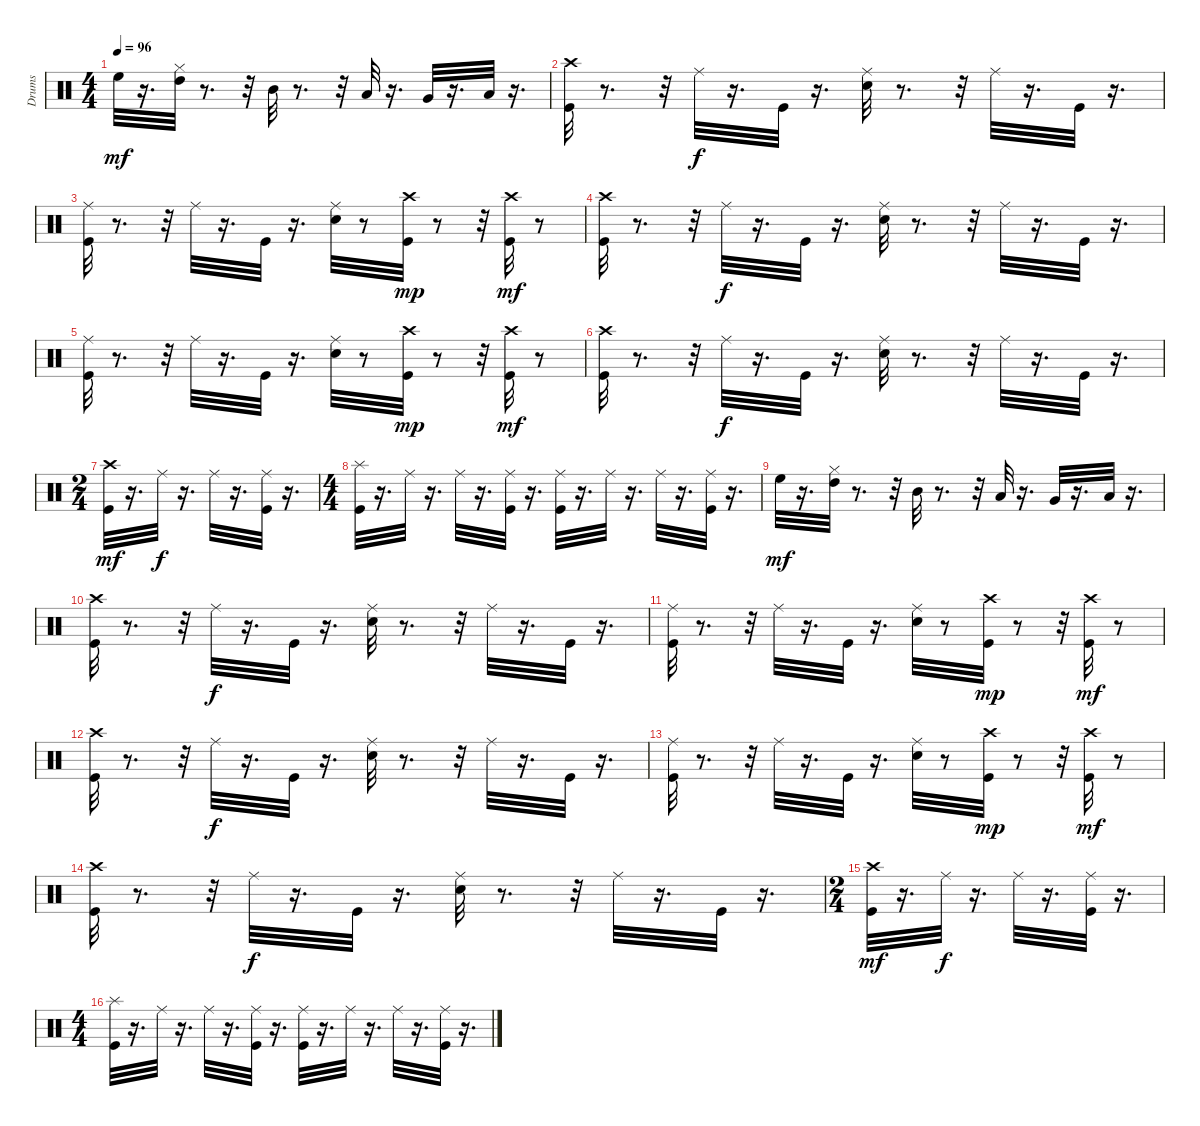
\track ("Drums" "Drums") {instrument percussion}
\staff {score}
\articulation defaults
\ts (4 4)
\tempo 96
\clef neutral
\ks c "High Floor Tom (hit)".32{dy mf}
r.16{d} ("Hi-Hat (closed)" "High Tom (hit)").32 r.8{d} r.32 "Mid Tom (hit)".32 r.8{d} r.32 "Low Tom (hit)".32 r.16{d} "Very Low Tom (hit)".32 r.16{d} "Low Floor Tom (hit)".32 r.16{d} |
("Kick (hit)" "Crash high (hit)").32 r.8{d} r.32 "Ride (middle)".32{dy f} r.16{d} "Kick (hit)".32 r.16{d} ("Snare (hit) 2" "Ride (middle)").32 r.8{d} r.32 "Ride (middle)".32 r.16{d} "Kick (hit)".32 r.16{d} |
("Kick (hit)" "Ride (middle)").32 r.8{d} r.32 "Ride (middle)".32 r.16{d} "Kick (hit)".32 r.16{d} ("Snare (hit) 2" "Ride (middle)").32 r.8 ("Kick (hit)" "Crash high (hit)").32{dy mp} r.8 r.32 ("Kick (hit)" "Crash high (hit)").32{dy mf} r.8 |
("Kick (hit)" "Crash high (hit)").32 r.8{d} r.32 "Ride (middle)".32{dy f} r.16{d} "Kick (hit)".32 r.16{d} ("Snare (hit) 2" "Ride (middle)").32 r.8{d} r.32 "Ride (middle)".32 r.16{d} "Kick (hit)".32 r.16{d} |
("Kick (hit)" "Ride (middle)").32 r.8{d} r.32 "Ride (middle)".32 r.16{d} "Kick (hit)".32 r.16{d} ("Snare (hit) 2" "Ride (middle)").32 r.8 ("Kick (hit)" "Crash high (hit)").32{dy mp} r.8 r.32 ("Kick (hit)" "Crash high (hit)").32{dy mf} r.8 |
("Kick (hit)" "Crash high (hit)").32 r.8{d} r.32 "Ride (middle)".32{dy f} r.16{d} "Kick (hit)".32 r.16{d} ("Snare (hit) 2" "Ride (middle)").32 r.8{d} r.32 "Ride (middle)".32 r.16{d} "Kick (hit)".32 r.16{d} |
\ts (2 4)
("Kick (hit)" "Crash high (hit)").32{dy mf} r.16{d} "Ride (middle)".32{dy f} r.16{d} "Ride (middle)".32 r.16{d} ("Kick (hit)" "Ride (middle)").32 r.16{d} |
\ts (4 4)
("Kick (hit)" "Splash (hit)").32 r.16{d} "Ride (middle)".32 r.16{d} "Ride (middle)".32 r.16{d} ("Kick (hit)" "Ride (middle)").32 r.16{d} ("Kick (hit)" "Ride (middle)").32 r.16{d} "Ride (middle)".32 r.16{d} "Ride (middle)".32 r.16{d} ("Kick (hit)" "Ride (middle)").32 r.16{d} |
"High Floor Tom (hit)".32{dy mf} r.16{d} ("Hi-Hat (closed)" "High Tom (hit)").32 r.8{d} r.32 "Mid Tom (hit)".32 r.8{d} r.32 "Low Tom (hit)".32 r.16{d} "Very Low Tom (hit)".32 r.16{d} "Low Floor Tom (hit)".32 r.16{d} |
("Kick (hit)" "Crash high (hit)").32 r.8{d} r.32 "Ride (middle)".32{dy f} r.16{d} "Kick (hit)".32 r.16{d} ("Snare (hit) 2" "Ride (middle)").32 r.8{d} r.32 "Ride (middle)".32 r.16{d} "Kick (hit)".32 r.16{d} |
("Kick (hit)" "Ride (middle)").32 r.8{d} r.32 "Ride (middle)".32 r.16{d} "Kick (hit)".32 r.16{d} ("Snare (hit) 2" "Ride (middle)").32 r.8 ("Kick (hit)" "Crash high (hit)").32{dy mp} r.8 r.32 ("Kick (hit)" "Crash high (hit)").32{dy mf} r.8 |
("Kick (hit)" "Crash high (hit)").32 r.8{d} r.32 "Ride (middle)".32{dy f} r.16{d} "Kick (hit)".32 r.16{d} ("Snare (hit) 2" "Ride (middle)").32 r.8{d} r.32 "Ride (middle)".32 r.16{d} "Kick (hit)".32 r.16{d} |
("Kick (hit)" "Ride (middle)").32 r.8{d} r.32 "Ride (middle)".32 r.16{d} "Kick (hit)".32 r.16{d} ("Snare (hit) 2" "Ride (middle)").32 r.8 ("Kick (hit)" "Crash high (hit)").32{dy mp} r.8 r.32 ("Kick (hit)" "Crash high (hit)").32{dy mf} r.8 |
("Kick (hit)" "Crash high (hit)").32 r.8{d} r.32 "Ride (middle)".32{dy f} r.16{d} "Kick (hit)".32 r.16{d} ("Snare (hit) 2" "Ride (middle)").32 r.8{d} r.32 "Ride (middle)".32 r.16{d} "Kick (hit)".32 r.16{d} |
\ts (2 4)
("Kick (hit)" "Crash high (hit)").32{dy mf} r.16{d} "Ride (middle)".32{dy f} r.16{d} "Ride (middle)".32 r.16{d} ("Kick (hit)" "Ride (middle)").32 r.16{d} |
\ts (4 4)
("Kick (hit)" "Splash (hit)").32 r.16{d} "Ride (middle)".32 r.16{d} "Ride (middle)".32 r.16{d} ("Kick (hit)" "Ride (middle)").32 r.16{d} ("Kick (hit)" "Ride (middle)").32 r.16{d} "Ride (middle)".32 r.16{d} "Ride (middle)".32 r.16{d} ("Kick (hit)" "Ride (middle)").32 r.16{d}
